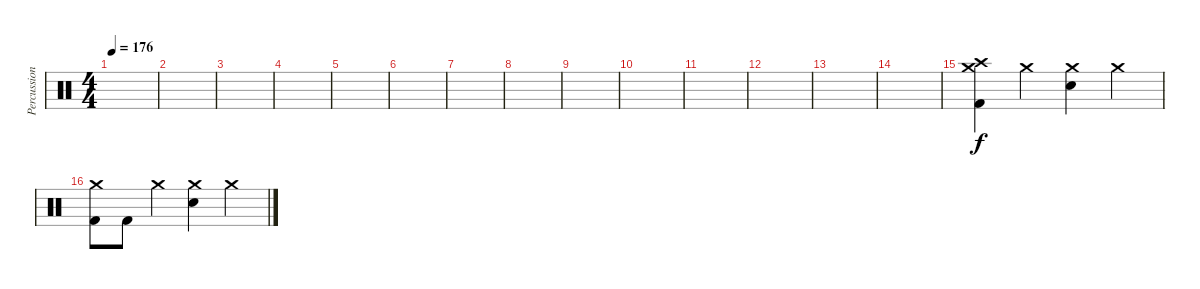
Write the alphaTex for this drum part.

\track ("Percussion" "Percussion") {instrument percussion}
\staff {score}
\articulation defaults
\ts (4 4)
\tempo 176
\clef neutral
\ks c
|
|
|
|
|
|
|
|
|
|
|
|
|
|
("Crash medium (hit)" "Crash high (hit)" "Kick (hit) 2").4 "Crash medium (hit)".4 ("Crash medium (hit)" "Snare (hit) 2").4 "Crash medium (hit)".4 |
("Crash medium (hit)" "Kick (hit) 2").8 "Kick (hit) 2".8 "Crash medium (hit)".4 ("Crash medium (hit)" "Snare (hit) 2").4 "Crash medium (hit)".4
